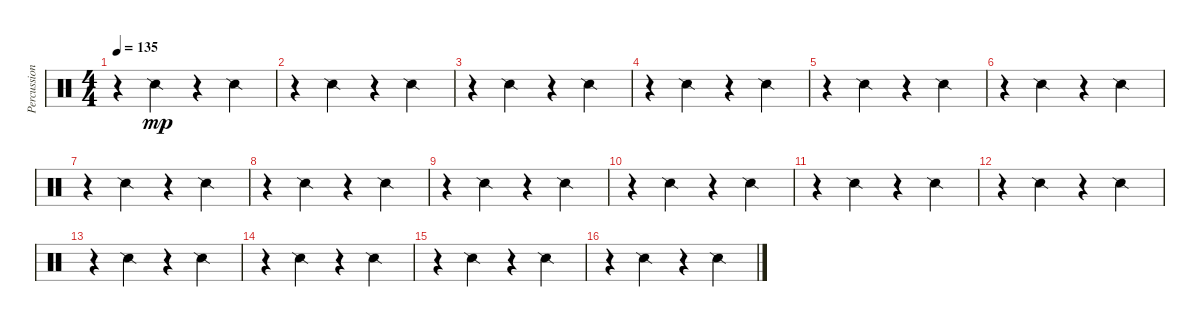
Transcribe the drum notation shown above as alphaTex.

\track ("Percussion" "Percussion") {instrument percussion}
\staff {score}
\articulation defaults
\ts (4 4)
\tempo 135
\clef neutral
\ks c
r.4{dy mp} "Snare (side stick) 2".4 r.4 "Snare (side stick) 2".4 |
r.4 "Snare (side stick) 2".4 r.4 "Snare (side stick) 2".4 |
r.4 "Snare (side stick) 2".4 r.4 "Snare (side stick) 2".4 |
r.4 "Snare (side stick) 2".4 r.4 "Snare (side stick) 2".4 |
r.4 "Snare (side stick) 2".4 r.4 "Snare (side stick) 2".4 |
r.4 "Snare (side stick) 2".4 r.4 "Snare (side stick) 2".4 |
r.4 "Snare (side stick) 2".4 r.4 "Snare (side stick) 2".4 |
r.4 "Snare (side stick) 2".4 r.4 "Snare (side stick) 2".4 |
r.4 "Snare (side stick) 2".4 r.4 "Snare (side stick) 2".4 |
r.4 "Snare (side stick) 2".4 r.4 "Snare (side stick) 2".4 |
r.4 "Snare (side stick) 2".4 r.4 "Snare (side stick) 2".4 |
r.4 "Snare (side stick) 2".4 r.4 "Snare (side stick) 2".4 |
r.4 "Snare (side stick) 2".4 r.4 "Snare (side stick) 2".4 |
r.4 "Snare (side stick) 2".4 r.4 "Snare (side stick) 2".4 |
r.4 "Snare (side stick) 2".4 r.4 "Snare (side stick) 2".4 |
r.4 "Snare (side stick) 2".4 r.4 "Snare (side stick) 2".4
